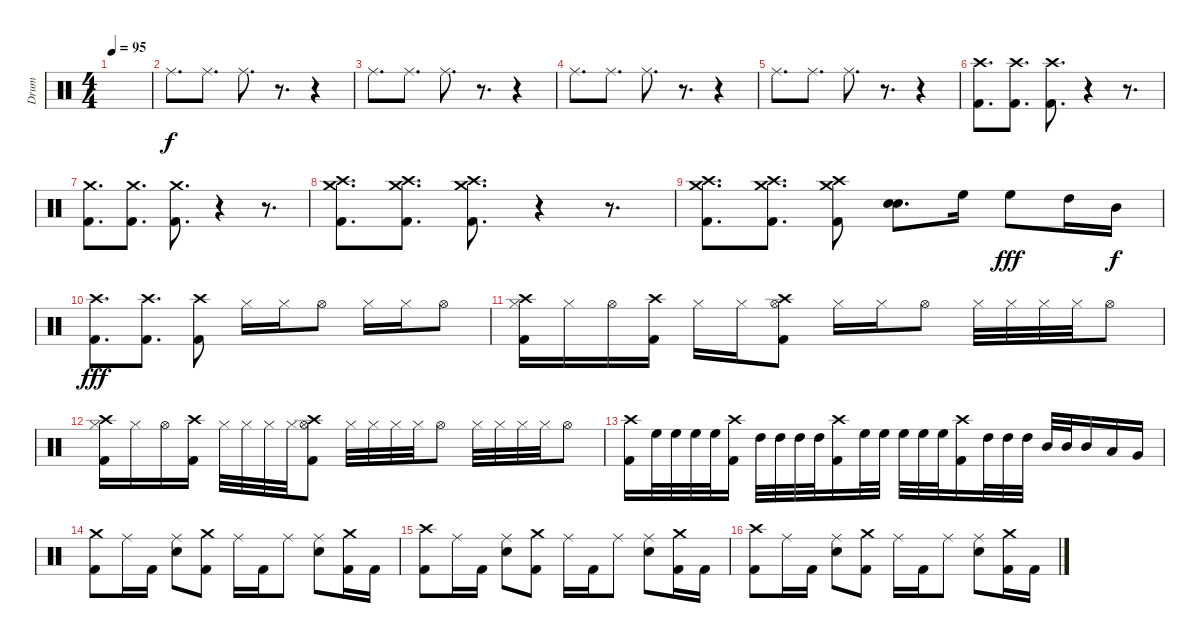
\track ("Drum" "Drum") {instrument percussion}
\staff {score}
\articulation defaults
\ts (4 4)
\tempo 95
\clef neutral
\ks c
|
"Ride (middle)".8{d} "Ride (middle)".8{d} "Ride (middle)".8{d} r.8{d} r.4 |
"Ride (middle)".8{d} "Ride (middle)".8{d} "Ride (middle)".8{d} r.8{d} r.4 |
"Ride (middle)".8{d} "Ride (middle)".8{d} "Ride (middle)".8{d} r.8{d} r.4 |
"Ride (middle)".8{d} "Ride (middle)".8{d} "Ride (middle)".8{d} r.8{d} r.4 |
("Crash high (hit)" "Kick (hit) 2").8{d} ("Crash high (hit)" "Kick (hit) 2").8{d} ("Crash high (hit)" "Kick (hit) 2").8{d} r.4 r.8{d} |
("Crash medium (hit)" "Kick (hit) 2").8{d} ("Crash medium (hit)" "Kick (hit) 2").8{d} ("Crash medium (hit)" "Kick (hit) 2").8{d} r.4 r.8{d} |
("Crash high (hit)" "Crash medium (hit)" "Kick (hit) 2").8{d} ("Crash high (hit)" "Crash medium (hit)" "Kick (hit) 2").8{d} ("Crash high (hit)" "Crash medium (hit)" "Kick (hit) 2").8{d} r.4 r.8{d} |
("Crash high (hit)" "Crash medium (hit)" "Kick (hit) 2").8{d} ("Crash high (hit)" "Crash medium (hit)" "Kick (hit) 2").8{d} ("Crash high (hit)" "Crash medium (hit)" "Kick (hit) 2").8 ("Electric Snare (hit)" "Electric Snare (hit)").8{d bd 120} "High Floor Tom (hit)".16{dy f} "High Floor Tom (hit)".8{dy fff} "High Tom (hit)".16 "Mid Tom (hit)".16{dy f} |
("Crash high (hit)" "Kick (hit) 2").8{d dy fff} ("Crash high (hit)" "Kick (hit) 2").8{d} ("Crash high (hit)" "Kick (hit) 2").8 "Hi-Hat (closed)".16 "Hi-Hat (closed)".16 "Hi-Hat (open)".8 "Hi-Hat (closed)".16 "Hi-Hat (closed)".16 "Hi-Hat (open)".8 |
("Crash high (hit)" "Hi-Hat (closed)" "Kick (hit) 2").16 "Hi-Hat (closed)".16 "Hi-Hat (open)".16 ("Crash high (hit)" "Kick (hit) 2").16 "Hi-Hat (closed)".16 "Hi-Hat (closed)".16 ("Crash high (hit)" "Hi-Hat (open)" "Kick (hit) 2").8 "Hi-Hat (closed)".16 "Hi-Hat (closed)".16 "Hi-Hat (open)".8 "Hi-Hat (closed)".32 "Hi-Hat (closed)".32 "Hi-Hat (closed)".32 "Hi-Hat (closed)".32 "Hi-Hat (open)".8 |
("Crash high (hit)" "Hi-Hat (closed)" "Kick (hit) 2").16 "Hi-Hat (closed)".16 "Hi-Hat (open)".16 ("Crash high (hit)" "Kick (hit) 2").16 "Hi-Hat (closed)".32 "Hi-Hat (closed)".32 "Hi-Hat (closed)".32 "Hi-Hat (closed)".32 ("Crash high (hit)" "Hi-Hat (open)" "Kick (hit) 2").8 "Hi-Hat (closed)".32 "Hi-Hat (closed)".32 "Hi-Hat (closed)".32 "Hi-Hat (closed)".32 "Hi-Hat (open)".8 "Hi-Hat (closed)".32 "Hi-Hat (closed)".32 "Hi-Hat (closed)".32 "Hi-Hat (closed)".32 "Hi-Hat (open)".8 |
("Crash high (hit)" "Kick (hit) 2").16 "High Floor Tom (hit)".32 "High Floor Tom (hit)".32 "High Floor Tom (hit)".32 "High Floor Tom (hit)".32 ("Crash high (hit)" "Kick (hit) 2").16 "High Tom (hit)".32 "High Tom (hit)".32 "High Tom (hit)".32 "High Tom (hit)".32 ("Crash high (hit)" "Kick (hit) 2").16 "High Floor Tom (hit)".32 "High Floor Tom (hit)".32 "High Floor Tom (hit)".32 "High Floor Tom (hit)".32 "High Floor Tom (hit)".32 ("Crash high (hit)" "Kick (hit) 2").16 "High Tom (hit)".32 "High Tom (hit)".32 "High Tom (hit)".32 "Mid Tom (hit)".32 "Mid Tom (hit)".32 "Mid Tom (hit)".16 "Low Tom (hit)".16 "Very Low Tom (hit)".16 |
("Crash medium (hit)" "Kick (hit) 2").8 "Ride (middle)".16 "Kick (hit) 2".16 ("Ride (middle)" "Electric Snare (hit)").8 ("Crash medium (hit)" "Kick (hit) 2").8 "Ride (middle)".16 "Kick (hit) 2".16 "Ride (middle)".8 ("Ride (middle)" "Electric Snare (hit)").8 ("Crash medium (hit)" "Kick (hit) 2").16 "Kick (hit) 2".16 |
("Crash high (hit)" "Kick (hit) 2").8 "Ride (middle)".16 "Kick (hit) 2".16 ("Ride (middle)" "Electric Snare (hit)").8 ("Crash medium (hit)" "Kick (hit) 2").8 "Ride (middle)".16 "Kick (hit) 2".16 "Ride (middle)".8 ("Ride (middle)" "Electric Snare (hit)").8 ("Crash medium (hit)" "Kick (hit) 2").16 "Kick (hit) 2".16 |
("Crash high (hit)" "Kick (hit) 2").8 "Ride (middle)".16 "Kick (hit) 2".16 ("Ride (middle)" "Electric Snare (hit)").8 ("Crash medium (hit)" "Kick (hit) 2").8 "Ride (middle)".16 "Kick (hit) 2".16 "Ride (middle)".8 ("Ride (middle)" "Electric Snare (hit)").8 ("Crash medium (hit)" "Kick (hit) 2").16 "Kick (hit) 2".16
